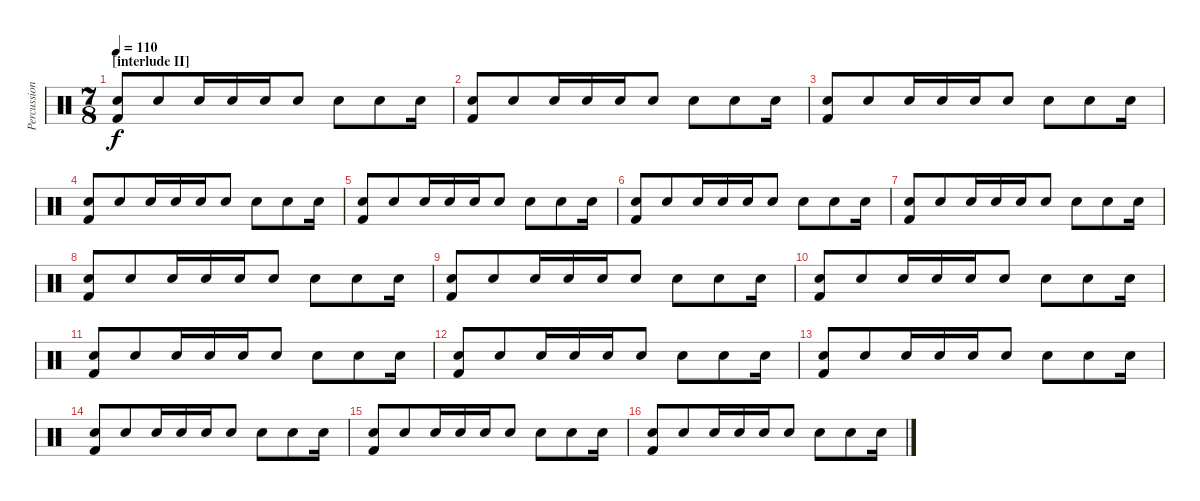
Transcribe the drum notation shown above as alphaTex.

\track ("Percussion" "Percussion") {instrument percussion}
\staff {score}
\articulation defaults
\ts (7 8)
\section ("" "[interlude II]")
\tempo 110
\clef neutral
\ks c
("Electric Snare (hit)" "Kick (hit) 2").8{dy f} "Electric Snare (hit)".8 "Electric Snare (hit)".16 "Electric Snare (hit)".16 "Electric Snare (hit)".16 "Electric Snare (hit)".8 "Electric Snare (hit)".8 "Electric Snare (hit)".8 "Electric Snare (hit)".16 |
("Electric Snare (hit)" "Kick (hit) 2").8 "Electric Snare (hit)".8 "Electric Snare (hit)".16 "Electric Snare (hit)".16 "Electric Snare (hit)".16 "Electric Snare (hit)".8 "Electric Snare (hit)".8 "Electric Snare (hit)".8 "Electric Snare (hit)".16 |
("Electric Snare (hit)" "Kick (hit) 2").8 "Electric Snare (hit)".8 "Electric Snare (hit)".16 "Electric Snare (hit)".16 "Electric Snare (hit)".16 "Electric Snare (hit)".8 "Electric Snare (hit)".8 "Electric Snare (hit)".8 "Electric Snare (hit)".16 |
("Electric Snare (hit)" "Kick (hit) 2").8 "Electric Snare (hit)".8 "Electric Snare (hit)".16 "Electric Snare (hit)".16 "Electric Snare (hit)".16 "Electric Snare (hit)".8 "Electric Snare (hit)".8 "Electric Snare (hit)".8 "Electric Snare (hit)".16 |
("Electric Snare (hit)" "Kick (hit) 2").8 "Electric Snare (hit)".8 "Electric Snare (hit)".16 "Electric Snare (hit)".16 "Electric Snare (hit)".16 "Electric Snare (hit)".8 "Electric Snare (hit)".8 "Electric Snare (hit)".8 "Electric Snare (hit)".16 |
("Electric Snare (hit)" "Kick (hit) 2").8 "Electric Snare (hit)".8 "Electric Snare (hit)".16 "Electric Snare (hit)".16 "Electric Snare (hit)".16 "Electric Snare (hit)".8 "Electric Snare (hit)".8 "Electric Snare (hit)".8 "Electric Snare (hit)".16 |
("Electric Snare (hit)" "Kick (hit) 2").8 "Electric Snare (hit)".8 "Electric Snare (hit)".16 "Electric Snare (hit)".16 "Electric Snare (hit)".16 "Electric Snare (hit)".8 "Electric Snare (hit)".8 "Electric Snare (hit)".8 "Electric Snare (hit)".16 |
("Electric Snare (hit)" "Kick (hit) 2").8 "Electric Snare (hit)".8 "Electric Snare (hit)".16 "Electric Snare (hit)".16 "Electric Snare (hit)".16 "Electric Snare (hit)".8 "Electric Snare (hit)".8 "Electric Snare (hit)".8 "Electric Snare (hit)".16 |
("Electric Snare (hit)" "Kick (hit) 2").8 "Electric Snare (hit)".8 "Electric Snare (hit)".16 "Electric Snare (hit)".16 "Electric Snare (hit)".16 "Electric Snare (hit)".8 "Electric Snare (hit)".8 "Electric Snare (hit)".8 "Electric Snare (hit)".16 |
("Electric Snare (hit)" "Kick (hit) 2").8 "Electric Snare (hit)".8 "Electric Snare (hit)".16 "Electric Snare (hit)".16 "Electric Snare (hit)".16 "Electric Snare (hit)".8 "Electric Snare (hit)".8 "Electric Snare (hit)".8 "Electric Snare (hit)".16 |
("Electric Snare (hit)" "Kick (hit) 2").8 "Electric Snare (hit)".8 "Electric Snare (hit)".16 "Electric Snare (hit)".16 "Electric Snare (hit)".16 "Electric Snare (hit)".8 "Electric Snare (hit)".8 "Electric Snare (hit)".8 "Electric Snare (hit)".16 |
("Electric Snare (hit)" "Kick (hit) 2").8 "Electric Snare (hit)".8 "Electric Snare (hit)".16 "Electric Snare (hit)".16 "Electric Snare (hit)".16 "Electric Snare (hit)".8 "Electric Snare (hit)".8 "Electric Snare (hit)".8 "Electric Snare (hit)".16 |
("Electric Snare (hit)" "Kick (hit) 2").8 "Electric Snare (hit)".8 "Electric Snare (hit)".16 "Electric Snare (hit)".16 "Electric Snare (hit)".16 "Electric Snare (hit)".8 "Electric Snare (hit)".8 "Electric Snare (hit)".8 "Electric Snare (hit)".16 |
("Electric Snare (hit)" "Kick (hit) 2").8 "Electric Snare (hit)".8 "Electric Snare (hit)".16 "Electric Snare (hit)".16 "Electric Snare (hit)".16 "Electric Snare (hit)".8 "Electric Snare (hit)".8 "Electric Snare (hit)".8 "Electric Snare (hit)".16 |
("Electric Snare (hit)" "Kick (hit) 2").8 "Electric Snare (hit)".8 "Electric Snare (hit)".16 "Electric Snare (hit)".16 "Electric Snare (hit)".16 "Electric Snare (hit)".8 "Electric Snare (hit)".8 "Electric Snare (hit)".8 "Electric Snare (hit)".16 |
("Electric Snare (hit)" "Kick (hit) 2").8 "Electric Snare (hit)".8 "Electric Snare (hit)".16 "Electric Snare (hit)".16 "Electric Snare (hit)".16 "Electric Snare (hit)".8 "Electric Snare (hit)".8 "Electric Snare (hit)".8 "Electric Snare (hit)".16
